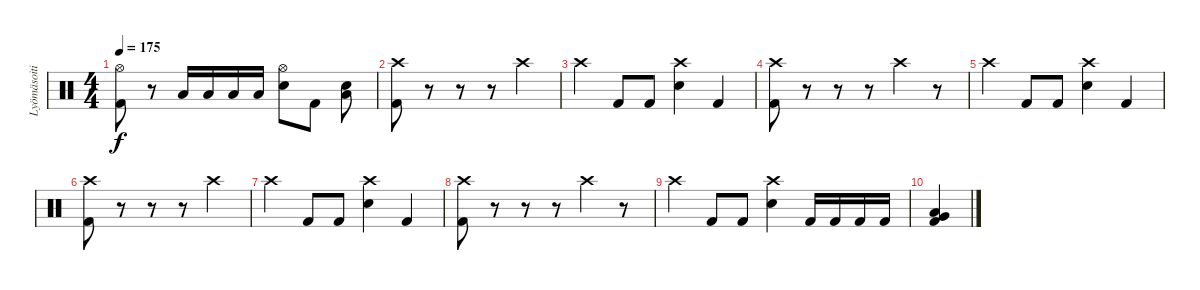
\track ("Lyömäsoitin" "Lyömäsoiti") {instrument percussion}
\staff {score}
\articulation defaults
\ts (4 4)
\tempo 175
\clef neutral
\ks c
("Kick (hit) 2" "Hi-Hat (open)").8{dy f} r.8 "Low Floor Tom (hit)".16 "Low Floor Tom (hit)".16 "Low Floor Tom (hit)".16 "Low Floor Tom (hit)".16 ("Electric Snare (hit)" "Hi-Hat (open)").8 "Kick (hit) 2".8 ("Electric Snare (hit)" "Low Floor Tom (hit)").8 |
("Kick (hit) 2" "Crash high (hit)").8 r.8 r.8 r.8 "Crash high (hit)".4 |
"Crash high (hit)".4 "Kick (hit) 2".8 "Kick (hit) 2".8 ("Electric Snare (hit)" "Crash high (hit)").4 "Kick (hit) 2".4 |
("Kick (hit) 2" "Crash high (hit)").8 r.8 r.8 r.8 "Crash high (hit)".4 r.8 |
"Crash high (hit)".4 "Kick (hit) 2".8 "Kick (hit) 2".8 ("Electric Snare (hit)" "Crash high (hit)").4 "Kick (hit) 2".4 |
("Kick (hit) 2" "Crash high (hit)").8 r.8 r.8 r.8 "Crash high (hit)".4 |
"Crash high (hit)".4 "Kick (hit) 2".8 "Kick (hit) 2".8 ("Electric Snare (hit)" "Crash high (hit)").4 "Kick (hit) 2".4 |
("Kick (hit) 2" "Crash high (hit)").8 r.8 r.8 r.8 "Crash high (hit)".4 r.8 |
"Crash high (hit)".4 "Kick (hit) 2".8 "Kick (hit) 2".8 ("Electric Snare (hit)" "Crash high (hit)").4 "Kick (hit) 2".16 "Kick (hit) 2".16 "Kick (hit) 2".16 "Kick (hit) 2".16 |
("Kick (hit) 2" "Very Low Tom (hit)" "Low Floor Tom (hit)").4
